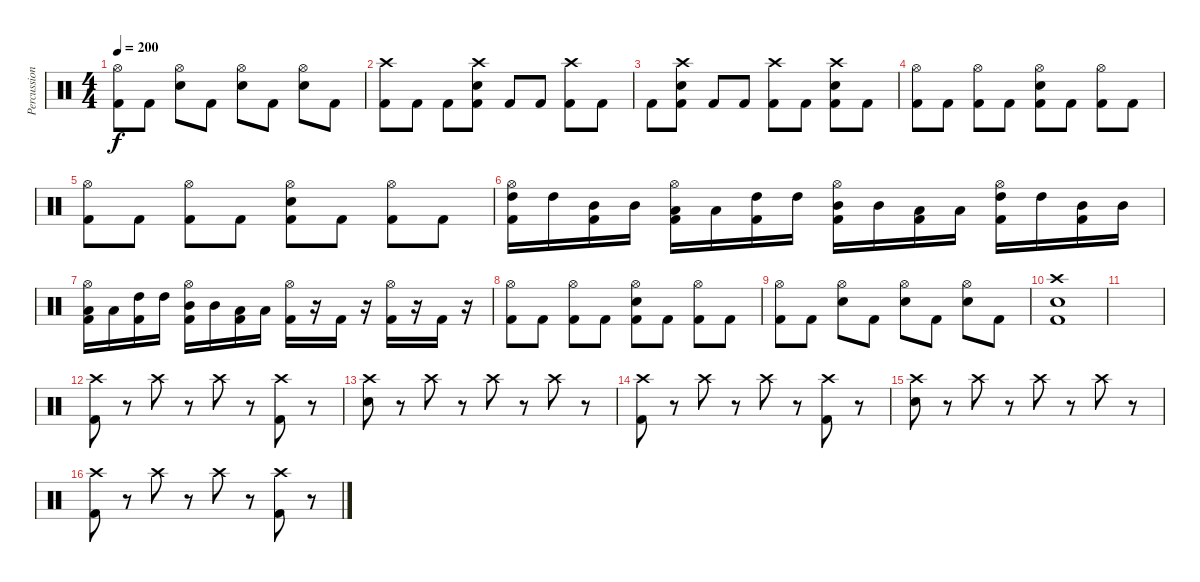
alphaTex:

\track ("Percussion" "Percussion") {instrument percussion}
\staff {score}
\articulation defaults
\ts (4 4)
\tempo 200
\clef neutral
\ks c
("Hi-Hat (open)" "Kick (hit) 2").8{dy f} "Kick (hit) 2".8 ("Hi-Hat (open)" "Snare (hit) 2").8 "Kick (hit) 2".8 ("Hi-Hat (open)" "Snare (hit) 2").8 "Kick (hit) 2".8 ("Hi-Hat (open)" "Snare (hit) 2").8 "Kick (hit) 2".8 |
("Crash high (hit)" "Kick (hit) 2").8 "Kick (hit) 2".8 "Kick (hit) 2".8 ("Crash high (hit)" "Snare (hit) 2" "Kick (hit) 2").8 "Kick (hit) 2".8 "Kick (hit) 2".8 ("Crash high (hit)" "Kick (hit) 2").8 "Kick (hit) 2".8 |
"Kick (hit) 2".8 ("Crash high (hit)" "Snare (hit) 2" "Kick (hit) 2").8 "Kick (hit) 2".8 "Kick (hit) 2".8 ("Crash high (hit)" "Kick (hit) 2").8 "Kick (hit) 2".8 ("Crash high (hit)" "Snare (hit) 2" "Kick (hit) 2").8 "Kick (hit) 2".8 |
("Hi-Hat (open)" "Kick (hit) 2").8 "Kick (hit) 2".8 ("Hi-Hat (open)" "Kick (hit) 2").8 "Kick (hit) 2".8 ("Hi-Hat (open)" "Snare (hit) 2" "Kick (hit) 2").8 "Kick (hit) 2".8 ("Hi-Hat (open)" "Kick (hit) 2").8 "Kick (hit) 2".8 |
("Hi-Hat (open)" "Kick (hit) 2").8 "Kick (hit) 2".8 ("Hi-Hat (open)" "Kick (hit) 2").8 "Kick (hit) 2".8 ("Hi-Hat (open)" "Snare (hit) 2" "Kick (hit) 2").8 "Kick (hit) 2".8 ("Hi-Hat (open)" "Kick (hit) 2").8 "Kick (hit) 2".8 |
("Hi-Hat (open)" "High Tom (hit)" "Kick (hit) 2").16 "High Tom (hit)".16 ("Mid Tom (hit)" "Kick (hit) 2").16 "Mid Tom (hit)".16 ("Hi-Hat (open)" "Low Tom (hit)" "Kick (hit) 2").16 "Low Tom (hit)".16 ("High Tom (hit)" "Kick (hit) 2").16 "High Tom (hit)".16 ("Hi-Hat (open)" "Mid Tom (hit)" "Kick (hit) 2").16 "Mid Tom (hit)".16 ("Low Tom (hit)" "Kick (hit) 2").16 "Low Tom (hit)".16 ("Hi-Hat (open)" "High Tom (hit)" "Kick (hit) 2").16 "High Tom (hit)".16 ("Mid Tom (hit)" "Kick (hit) 2").16 "Mid Tom (hit)".16 |
("Hi-Hat (open)" "Low Tom (hit)" "Kick (hit) 2").16 "Low Tom (hit)".16 ("High Tom (hit)" "Kick (hit) 2").16 "High Tom (hit)".16 ("Hi-Hat (open)" "Mid Tom (hit)" "Kick (hit) 2").16 "Mid Tom (hit)".16 ("Low Tom (hit)" "Kick (hit) 2").16 "Low Tom (hit)".16 ("Hi-Hat (open)" "Kick (hit) 2").16 r.16 "Kick (hit) 2".16 r.16 ("Hi-Hat (open)" "Kick (hit) 2").16 r.16 "Kick (hit) 2".16 r.16 |
("Hi-Hat (open)" "Kick (hit) 2").8 "Kick (hit) 2".8 ("Hi-Hat (open)" "Kick (hit) 2").8 "Kick (hit) 2".8 ("Hi-Hat (open)" "Snare (hit) 2" "Kick (hit) 2").8 "Kick (hit) 2".8 ("Hi-Hat (open)" "Kick (hit) 2").8 "Kick (hit) 2".8 |
("Hi-Hat (open)" "Kick (hit) 2").8 "Kick (hit) 2".8 ("Hi-Hat (open)" "Snare (hit) 2").8 "Kick (hit) 2".8 ("Hi-Hat (open)" "Snare (hit) 2").8 "Kick (hit) 2".8 ("Hi-Hat (open)" "Snare (hit) 2").8 "Kick (hit) 2".8 |
("Crash high (hit)" "Snare (hit) 2" "Kick (hit) 2").1 |
|
("Crash high (hit)" "Kick (hit) 2").8 r.8 "Crash high (hit)".8 r.8 "Crash high (hit)".8 r.8 ("Crash high (hit)" "Kick (hit) 2").8 r.8 |
("Crash high (hit)" "Snare (hit) 2").8 r.8 "Crash high (hit)".8 r.8 "Crash high (hit)".8 r.8 "Crash high (hit)".8 r.8 |
("Crash high (hit)" "Kick (hit) 2").8 r.8 "Crash high (hit)".8 r.8 "Crash high (hit)".8 r.8 ("Crash high (hit)" "Kick (hit) 2").8 r.8 |
("Crash high (hit)" "Snare (hit) 2").8 r.8 "Crash high (hit)".8 r.8 "Crash high (hit)".8 r.8 "Crash high (hit)".8 r.8 |
("Crash high (hit)" "Kick (hit) 2").8 r.8 "Crash high (hit)".8 r.8 "Crash high (hit)".8 r.8 ("Crash high (hit)" "Kick (hit) 2").8 r.8
